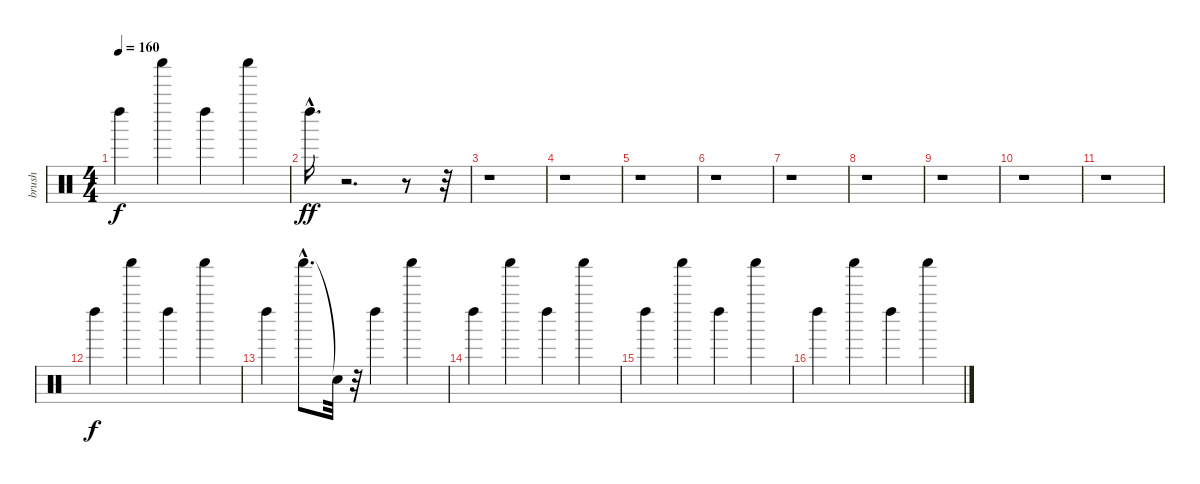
\track ("brush" "brush") {instrument percussion}
\staff {score}
\articulation defaults
\ts (4 4)
\tempo 160
\clef neutral
\ks c "Left Maraca (hit)".4{dy f} "Shaker (hit)".4 "Left Maraca (hit)".4 "Shaker (hit)".4
|
"Left Maraca (hit)"{hac}.16{d dy ff} r.2{d} r.8 r.32 |
r.1 |
r.1 |
r.1 |
r.1 |
r.1 |
r.1 |
r.1 |
r.1 |
r.1 |
"Left Maraca (hit)".4{dy f} "Shaker (hit)".4 "Left Maraca (hit)".4 "Shaker (hit)".4 |
"Left Maraca (hit)".4 "Shaker (hit)"{hac}.8{d} "Snare (hit)"{t}.32 r.32 "Left Maraca (hit)".4 "Shaker (hit)".4 |
"Left Maraca (hit)".4 "Shaker (hit)".4 "Left Maraca (hit)".4 "Shaker (hit)".4 |
"Left Maraca (hit)".4 "Shaker (hit)".4 "Left Maraca (hit)".4 "Shaker (hit)".4 |
"Left Maraca (hit)".4 "Shaker (hit)".4 "Left Maraca (hit)".4 "Shaker (hit)".4
